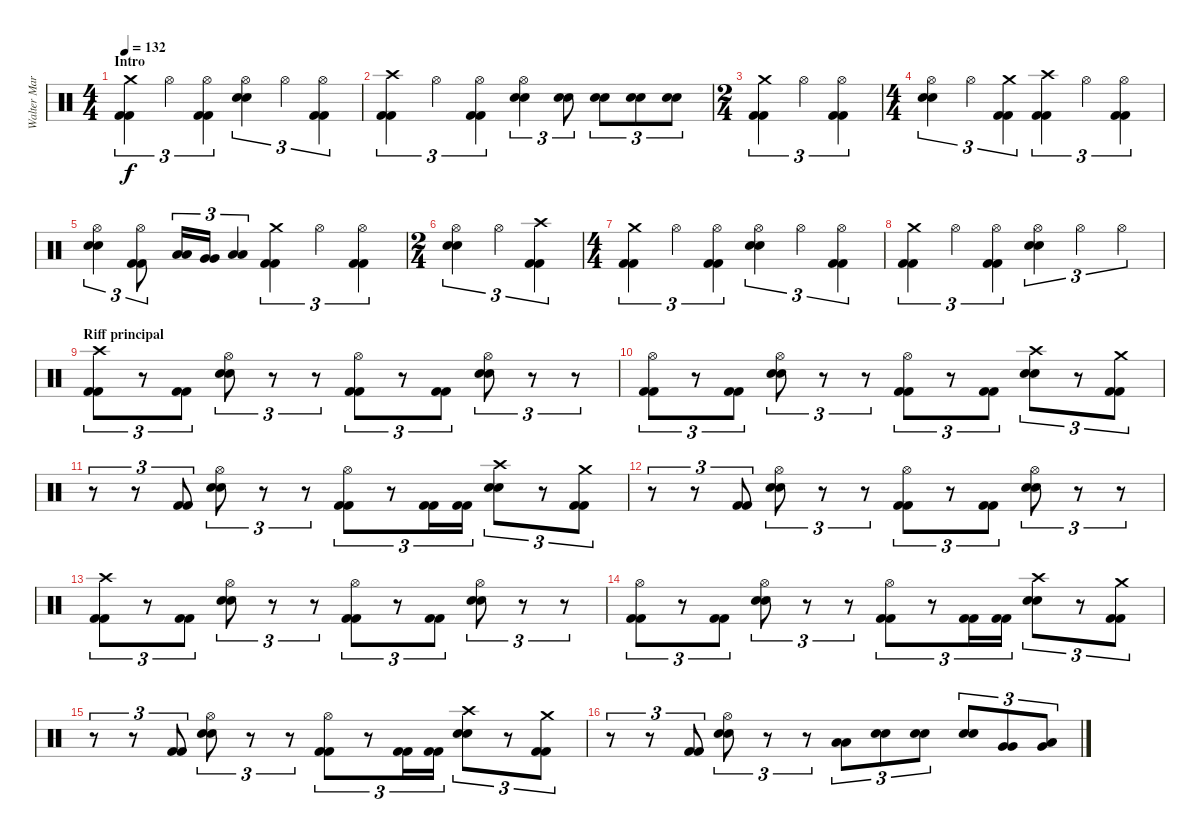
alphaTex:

\track ("Walter Martinez (bateria)" "Walter Mar") {instrument percussion}
\staff {score}
\articulation defaults
\ts (4 4)
\section ("" "Intro")
\tempo 132
\clef neutral
\ks c
("Crash medium (hit)" "Kick (hit) 2" "Kick (hit) 2").4{tu (3 2) dy f} "Hi-Hat (open)".4{tu (3 2)} ("Hi-Hat (open)" "Kick (hit) 2" "Kick (hit) 2").4{tu (3 2)} ("Hi-Hat (open)" "Snare (hit) 2" "Snare (hit) 2").4{tu (3 2)} "Hi-Hat (open)".4{tu (3 2)} ("Hi-Hat (open)" "Kick (hit) 2" "Kick (hit) 2").4{tu (3 2)} |
("Crash high (hit)" "Kick (hit) 2" "Kick (hit) 2").4{tu (3 2)} "Hi-Hat (open)".4{tu (3 2)} ("Hi-Hat (open)" "Kick (hit) 2" "Kick (hit) 2").4{tu (3 2)} ("Hi-Hat (open)" "Snare (hit) 2" "Snare (hit) 2").4{tu (3 2)} ("Snare (hit) 2" "Snare (hit) 2").8{tu (3 2)} ("Snare (hit) 2" "Snare (hit) 2").8{tu (3 2)} ("Snare (hit) 2" "Snare (hit) 2").8{tu (3 2)} ("Snare (hit) 2" "Snare (hit) 2").8{tu (3 2)} |
\ts (2 4)
("Crash medium (hit)" "Kick (hit) 2" "Kick (hit) 2").4{tu (3 2)} "Hi-Hat (open)".4{tu (3 2)} ("Hi-Hat (open)" "Kick (hit) 2" "Kick (hit) 2").4{tu (3 2)} |
\ts (4 4)
("Hi-Hat (open)" "Snare (hit) 2" "Snare (hit) 2").4{tu (3 2)} "Hi-Hat (open)".4{tu (3 2)} ("Crash medium (hit)" "Kick (hit) 2" "Kick (hit) 2").4{tu (3 2)} ("Crash high (hit)" "Kick (hit) 2" "Kick (hit) 2").4{tu (3 2)} "Hi-Hat (open)".4{tu (3 2)} ("Hi-Hat (open)" "Kick (hit) 2" "Kick (hit) 2").4{tu (3 2)} |
("Hi-Hat (open)" "Snare (hit) 2" "Snare (hit) 2").4{tu (3 2)} ("Hi-Hat (open)" "Kick (hit) 2" "Kick (hit) 2").8{tu (3 2)} ("Low Tom (hit)" "Low Tom (hit)").16{tu (3 2)} ("Very Low Tom (hit)" "Very Low Tom (hit)").16{tu (3 2)} ("Low Floor Tom (hit)" "Low Floor Tom (hit)").4{tu (3 2)} ("Crash medium (hit)" "Kick (hit) 2" "Kick (hit) 2").4{tu (3 2)} "Hi-Hat (open)".4{tu (3 2)} ("Hi-Hat (open)" "Kick (hit) 2" "Kick (hit) 2").4{tu (3 2)} |
\ts (2 4)
("Hi-Hat (open)" "Snare (hit) 2" "Snare (hit) 2").4{tu (3 2)} "Hi-Hat (open)".4{tu (3 2)} ("Crash high (hit)" "Kick (hit) 2" "Kick (hit) 2").4{tu (3 2)} |
\ts (4 4)
("Crash medium (hit)" "Kick (hit) 2" "Kick (hit) 2").4{tu (3 2)} "Hi-Hat (open)".4{tu (3 2)} ("Hi-Hat (open)" "Kick (hit) 2" "Kick (hit) 2").4{tu (3 2)} ("Hi-Hat (open)" "Snare (hit) 2" "Snare (hit) 2").4{tu (3 2)} "Hi-Hat (open)".4{tu (3 2)} ("Hi-Hat (open)" "Kick (hit) 2" "Kick (hit) 2").4{tu (3 2)} |
("Crash medium (hit)" "Kick (hit) 2" "Kick (hit) 2").4{tu (3 2)} "Hi-Hat (open)".4{tu (3 2)} ("Hi-Hat (open)" "Kick (hit) 2" "Kick (hit) 2").4{tu (3 2)} ("Hi-Hat (open)" "Snare (hit) 2" "Snare (hit) 2").4{tu (3 2)} "Hi-Hat (open)".4{tu (3 2)} "Hi-Hat (open)".4{tu (3 2)} |
\section ("" "Riff principal")
("Crash high (hit)" "Kick (hit) 2" "Kick (hit) 2").8{tu (3 2)} r.8{tu (3 2)} ("Kick (hit) 2" "Kick (hit) 2").8{tu (3 2)} ("Hi-Hat (open)" "Snare (hit) 2" "Snare (hit) 2").8{tu (3 2)} r.8{tu (3 2)} r.8{tu (3 2)} ("Hi-Hat (open)" "Kick (hit) 2" "Kick (hit) 2").8{tu (3 2)} r.8{tu (3 2)} ("Kick (hit) 2" "Kick (hit) 2").8{tu (3 2)} ("Hi-Hat (open)" "Snare (hit) 2" "Snare (hit) 2").8{tu (3 2)} r.8{tu (3 2)} r.8{tu (3 2)} |
("Hi-Hat (open)" "Kick (hit) 2" "Kick (hit) 2").8{tu (3 2)} r.8{tu (3 2)} ("Kick (hit) 2" "Kick (hit) 2").8{tu (3 2)} ("Hi-Hat (open)" "Snare (hit) 2" "Snare (hit) 2").8{tu (3 2)} r.8{tu (3 2)} r.8{tu (3 2)} ("Hi-Hat (open)" "Kick (hit) 2" "Kick (hit) 2").8{tu (3 2)} r.8{tu (3 2)} ("Kick (hit) 2" "Kick (hit) 2").8{tu (3 2)} ("Crash high (hit)" "Snare (hit) 2" "Snare (hit) 2").8{tu (3 2)} r.8{tu (3 2)} ("Crash medium (hit)" "Kick (hit) 2" "Kick (hit) 2").8{tu (3 2)} |
r.8{tu (3 2)} r.8{tu (3 2)} ("Kick (hit) 2" "Kick (hit) 2").8{tu (3 2)} ("Hi-Hat (open)" "Snare (hit) 2" "Snare (hit) 2").8{tu (3 2)} r.8{tu (3 2)} r.8{tu (3 2)} ("Hi-Hat (open)" "Kick (hit) 2" "Kick (hit) 2").8{tu (3 2)} r.8{tu (3 2)} ("Kick (hit) 2" "Kick (hit) 2").16{tu (3 2)} ("Kick (hit) 2" "Kick (hit) 2").16{tu (3 2)} ("Crash high (hit)" "Snare (hit) 2" "Snare (hit) 2").8{tu (3 2)} r.8{tu (3 2)} ("Crash medium (hit)" "Kick (hit) 2" "Kick (hit) 2").8{tu (3 2)} |
r.8{tu (3 2)} r.8{tu (3 2)} ("Kick (hit) 2" "Kick (hit) 2").8{tu (3 2)} ("Hi-Hat (open)" "Snare (hit) 2" "Snare (hit) 2").8{tu (3 2)} r.8{tu (3 2)} r.8{tu (3 2)} ("Hi-Hat (open)" "Kick (hit) 2" "Kick (hit) 2").8{tu (3 2)} r.8{tu (3 2)} ("Kick (hit) 2" "Kick (hit) 2").8{tu (3 2)} ("Hi-Hat (open)" "Snare (hit) 2" "Snare (hit) 2").8{tu (3 2)} r.8{tu (3 2)} r.8{tu (3 2)} |
("Crash high (hit)" "Kick (hit) 2" "Kick (hit) 2").8{tu (3 2)} r.8{tu (3 2)} ("Kick (hit) 2" "Kick (hit) 2").8{tu (3 2)} ("Hi-Hat (open)" "Snare (hit) 2" "Snare (hit) 2").8{tu (3 2)} r.8{tu (3 2)} r.8{tu (3 2)} ("Hi-Hat (open)" "Kick (hit) 2" "Kick (hit) 2").8{tu (3 2)} r.8{tu (3 2)} ("Kick (hit) 2" "Kick (hit) 2").8{tu (3 2)} ("Hi-Hat (open)" "Snare (hit) 2" "Snare (hit) 2").8{tu (3 2)} r.8{tu (3 2)} r.8{tu (3 2)} |
("Hi-Hat (open)" "Kick (hit) 2" "Kick (hit) 2").8{tu (3 2)} r.8{tu (3 2)} ("Kick (hit) 2" "Kick (hit) 2").8{tu (3 2)} ("Hi-Hat (open)" "Snare (hit) 2" "Snare (hit) 2").8{tu (3 2)} r.8{tu (3 2)} r.8{tu (3 2)} ("Hi-Hat (open)" "Kick (hit) 2" "Kick (hit) 2").8{tu (3 2)} r.8{tu (3 2)} ("Kick (hit) 2" "Kick (hit) 2").16{tu (3 2)} ("Kick (hit) 2" "Kick (hit) 2").16{tu (3 2)} ("Crash high (hit)" "Snare (hit) 2" "Snare (hit) 2").8{tu (3 2)} r.8{tu (3 2)} ("Crash medium (hit)" "Kick (hit) 2" "Kick (hit) 2").8{tu (3 2)} |
r.8{tu (3 2)} r.8{tu (3 2)} ("Kick (hit) 2" "Kick (hit) 2").8{tu (3 2)} ("Hi-Hat (open)" "Snare (hit) 2" "Snare (hit) 2").8{tu (3 2)} r.8{tu (3 2)} r.8{tu (3 2)} ("Hi-Hat (open)" "Kick (hit) 2" "Kick (hit) 2").8{tu (3 2)} r.8{tu (3 2)} ("Kick (hit) 2" "Kick (hit) 2").16{tu (3 2)} ("Kick (hit) 2" "Kick (hit) 2").16{tu (3 2)} ("Crash high (hit)" "Snare (hit) 2" "Snare (hit) 2").8{tu (3 2)} r.8{tu (3 2)} ("Crash medium (hit)" "Kick (hit) 2" "Kick (hit) 2").8{tu (3 2)} |
r.8{tu (3 2)} r.8{tu (3 2)} ("Kick (hit) 2" "Kick (hit) 2").8{tu (3 2)} ("Hi-Hat (open)" "Snare (hit) 2" "Snare (hit) 2").8{tu (3 2)} r.8{tu (3 2)} r.8{tu (3 2)} ("Low Tom (hit)" "Low Tom (hit)").8{tu (3 2)} ("Snare (hit) 2" "Snare (hit) 2").8{tu (3 2)} ("Snare (hit) 2" "Snare (hit) 2").8{tu (3 2)} ("Snare (hit) 2" "Snare (hit) 2").8{tu (3 2)} ("Very Low Tom (hit)" "Very Low Tom (hit)").8{tu (3 2)} ("Very Low Tom (hit)" "Low Floor Tom (hit)").8{tu (3 2)}
